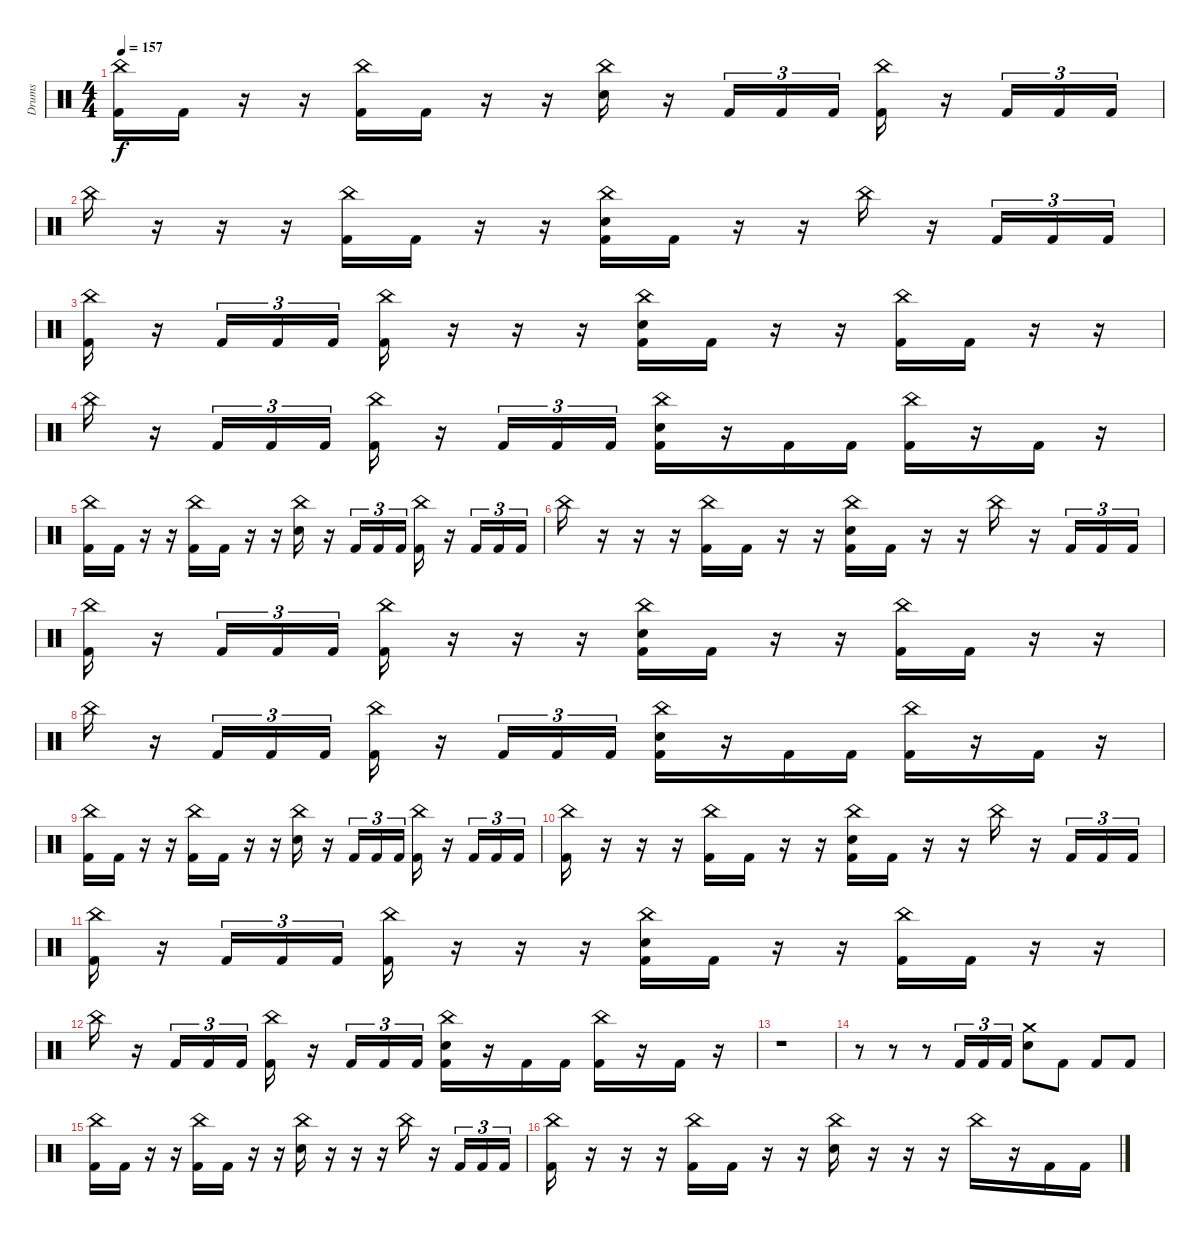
\track ("Drums" "Drums") {instrument percussion}
\staff {score}
\articulation defaults
\ts (4 4)
\tempo 157
\clef neutral
\ks c
("China (hit)" "Kick (hit) 2").16{dy f} "Kick (hit) 2".16 r.16 r.16 ("China (hit)" "Kick (hit) 2").16 "Kick (hit) 2".16 r.16 r.16 ("China (hit)" "Electric Snare (hit)").16 r.16 "Kick (hit) 2".16{tu (3 2)} "Kick (hit) 2".16{tu (3 2)} "Kick (hit) 2".16{tu (3 2)} ("China (hit)" "Kick (hit) 2").16 r.16 "Kick (hit) 2".16{tu (3 2)} "Kick (hit) 2".16{tu (3 2)} "Kick (hit) 2".16{tu (3 2)} |
"China (hit)".16 r.16 r.16 r.16 ("China (hit)" "Kick (hit) 2").16 "Kick (hit) 2".16 r.16 r.16 ("China (hit)" "Electric Snare (hit)" "Kick (hit) 2").16 "Kick (hit) 2".16 r.16 r.16 "China (hit)".16 r.16 "Kick (hit) 2".16{tu (3 2)} "Kick (hit) 2".16{tu (3 2)} "Kick (hit) 2".16{tu (3 2)} |
("China (hit)" "Kick (hit) 2").16 r.16 "Kick (hit) 2".16{tu (3 2)} "Kick (hit) 2".16{tu (3 2)} "Kick (hit) 2".16{tu (3 2)} ("China (hit)" "Kick (hit) 2").16 r.16 r.16 r.16 ("China (hit)" "Electric Snare (hit)" "Kick (hit) 2").16 "Kick (hit) 2".16 r.16 r.16 ("China (hit)" "Kick (hit) 2").16 "Kick (hit) 2".16 r.16 r.16 |
"China (hit)".16 r.16 "Kick (hit) 2".16{tu (3 2)} "Kick (hit) 2".16{tu (3 2)} "Kick (hit) 2".16{tu (3 2)} ("China (hit)" "Kick (hit) 2").16 r.16 "Kick (hit) 2".16{tu (3 2)} "Kick (hit) 2".16{tu (3 2)} "Kick (hit) 2".16{tu (3 2)} ("China (hit)" "Electric Snare (hit)" "Kick (hit) 2").16 r.16 "Kick (hit) 2".16 "Kick (hit) 2".16 ("China (hit)" "Kick (hit) 2").16 r.16 "Kick (hit) 2".16 r.16 |
("China (hit)" "Kick (hit) 2").16 "Kick (hit) 2".16 r.16 r.16 ("China (hit)" "Kick (hit) 2").16 "Kick (hit) 2".16 r.16 r.16 ("China (hit)" "Electric Snare (hit)").16 r.16 "Kick (hit) 2".16{tu (3 2)} "Kick (hit) 2".16{tu (3 2)} "Kick (hit) 2".16{tu (3 2)} ("China (hit)" "Kick (hit) 2").16 r.16 "Kick (hit) 2".16{tu (3 2)} "Kick (hit) 2".16{tu (3 2)} "Kick (hit) 2".16{tu (3 2)} |
"China (hit)".16 r.16 r.16 r.16 ("China (hit)" "Kick (hit) 2").16 "Kick (hit) 2".16 r.16 r.16 ("China (hit)" "Electric Snare (hit)" "Kick (hit) 2").16 "Kick (hit) 2".16 r.16 r.16 "China (hit)".16 r.16 "Kick (hit) 2".16{tu (3 2)} "Kick (hit) 2".16{tu (3 2)} "Kick (hit) 2".16{tu (3 2)} |
("China (hit)" "Kick (hit) 2").16 r.16 "Kick (hit) 2".16{tu (3 2)} "Kick (hit) 2".16{tu (3 2)} "Kick (hit) 2".16{tu (3 2)} ("China (hit)" "Kick (hit) 2").16 r.16 r.16 r.16 ("China (hit)" "Electric Snare (hit)" "Kick (hit) 2").16 "Kick (hit) 2".16 r.16 r.16 ("China (hit)" "Kick (hit) 2").16 "Kick (hit) 2".16 r.16 r.16 |
"China (hit)".16 r.16 "Kick (hit) 2".16{tu (3 2)} "Kick (hit) 2".16{tu (3 2)} "Kick (hit) 2".16{tu (3 2)} ("China (hit)" "Kick (hit) 2").16 r.16 "Kick (hit) 2".16{tu (3 2)} "Kick (hit) 2".16{tu (3 2)} "Kick (hit) 2".16{tu (3 2)} ("China (hit)" "Electric Snare (hit)" "Kick (hit) 2").16 r.16 "Kick (hit) 2".16 "Kick (hit) 2".16 ("China (hit)" "Kick (hit) 2").16 r.16 "Kick (hit) 2".16 r.16 |
("China (hit)" "Kick (hit) 2").16 "Kick (hit) 2".16 r.16 r.16 ("China (hit)" "Kick (hit) 2").16 "Kick (hit) 2".16 r.16 r.16 ("China (hit)" "Electric Snare (hit)").16 r.16 "Kick (hit) 2".16{tu (3 2)} "Kick (hit) 2".16{tu (3 2)} "Kick (hit) 2".16{tu (3 2)} ("China (hit)" "Kick (hit) 2").16 r.16 "Kick (hit) 2".16{tu (3 2)} "Kick (hit) 2".16{tu (3 2)} "Kick (hit) 2".16{tu (3 2)} |
("China (hit)" "Kick (hit) 2").16 r.16 r.16 r.16 ("China (hit)" "Kick (hit) 2").16 "Kick (hit) 2".16 r.16 r.16 ("China (hit)" "Electric Snare (hit)" "Kick (hit) 2").16 "Kick (hit) 2".16 r.16 r.16 "China (hit)".16 r.16 "Kick (hit) 2".16{tu (3 2)} "Kick (hit) 2".16{tu (3 2)} "Kick (hit) 2".16{tu (3 2)} |
("China (hit)" "Kick (hit) 2").16 r.16 "Kick (hit) 2".16{tu (3 2)} "Kick (hit) 2".16{tu (3 2)} "Kick (hit) 2".16{tu (3 2)} ("China (hit)" "Kick (hit) 2").16 r.16 r.16 r.16 ("China (hit)" "Electric Snare (hit)" "Kick (hit) 2").16 "Kick (hit) 2".16 r.16 r.16 ("China (hit)" "Kick (hit) 2").16 "Kick (hit) 2".16 r.16 r.16 |
"China (hit)".16 r.16 "Kick (hit) 2".16{tu (3 2)} "Kick (hit) 2".16{tu (3 2)} "Kick (hit) 2".16{tu (3 2)} ("China (hit)" "Kick (hit) 2").16 r.16 "Kick (hit) 2".16{tu (3 2)} "Kick (hit) 2".16{tu (3 2)} "Kick (hit) 2".16{tu (3 2)} ("China (hit)" "Electric Snare (hit)" "Kick (hit) 2").16 r.16 "Kick (hit) 2".16 "Kick (hit) 2".16 ("China (hit)" "Kick (hit) 2").16 r.16 "Kick (hit) 2".16 r.16 |
r.1 |
r.8 r.8 r.8 "Kick (hit) 2".16{tu (3 2)} "Kick (hit) 2".16{tu (3 2)} "Kick (hit) 2".16{tu (3 2)} ("Crash medium (hit)" "Electric Snare (hit)").8 "Kick (hit) 2".8 "Kick (hit) 2".8 "Kick (hit) 2".8 |
("China (hit)" "Kick (hit) 2").16 "Kick (hit) 2".16 r.16 r.16 ("China (hit)" "Kick (hit) 2").16 "Kick (hit) 2".16 r.16 r.16 ("China (hit)" "Electric Snare (hit)").16 r.16 r.16 r.16 "China (hit)".16 r.16 "Kick (hit) 2".16{tu (3 2)} "Kick (hit) 2".16{tu (3 2)} "Kick (hit) 2".16{tu (3 2)} |
("China (hit)" "Kick (hit) 2").16 r.16 r.16 r.16 ("China (hit)" "Kick (hit) 2").16 "Kick (hit) 2".16 r.16 r.16 ("China (hit)" "Electric Snare (hit)").16 r.16 r.16 r.16 "China (hit)".16 r.16 "Kick (hit) 2".16 "Kick (hit) 2".16
